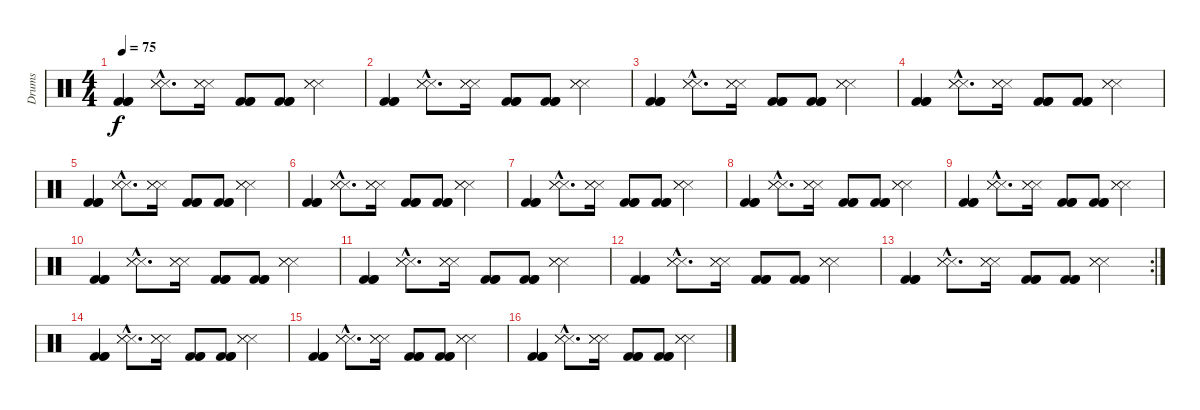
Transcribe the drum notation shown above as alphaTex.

\track ("Drums" "Drums") {instrument percussion}
\staff {score}
\articulation defaults
\ts (4 4)
\tempo 75
\clef neutral
\ks c
("Kick (hit) 2" "Kick (hit) 2" "Kick (hit) 2").4{dy f} ("Snare (side stick) 3"{hac} "Snare (side stick) 3"{hac} "Snare (side stick) 3"{hac}).8{d} ("Snare (side stick) 3" "Snare (side stick) 3" "Snare (side stick) 3").16 ("Kick (hit) 2" "Kick (hit) 2" "Kick (hit) 2").8 ("Kick (hit) 2" "Kick (hit) 2" "Kick (hit) 2").8 ("Snare (side stick) 3" "Snare (side stick) 3" "Snare (side stick) 3").4 |
("Kick (hit) 2" "Kick (hit) 2" "Kick (hit) 2").4 ("Snare (side stick) 3"{hac} "Snare (side stick) 3"{hac} "Snare (side stick) 3"{hac}).8{d} ("Snare (side stick) 3" "Snare (side stick) 3" "Snare (side stick) 3").16 ("Kick (hit) 2" "Kick (hit) 2" "Kick (hit) 2").8 ("Kick (hit) 2" "Kick (hit) 2" "Kick (hit) 2").8 ("Snare (side stick) 3" "Snare (side stick) 3" "Snare (side stick) 3").4 |
("Kick (hit) 2" "Kick (hit) 2" "Kick (hit) 2").4 ("Snare (side stick) 3"{hac} "Snare (side stick) 3"{hac} "Snare (side stick) 3"{hac}).8{d} ("Snare (side stick) 3" "Snare (side stick) 3" "Snare (side stick) 3").16 ("Kick (hit) 2" "Kick (hit) 2" "Kick (hit) 2").8 ("Kick (hit) 2" "Kick (hit) 2" "Kick (hit) 2").8 ("Snare (side stick) 3" "Snare (side stick) 3" "Snare (side stick) 3").4 |
("Kick (hit) 2" "Kick (hit) 2" "Kick (hit) 2").4 ("Snare (side stick) 3"{hac} "Snare (side stick) 3"{hac} "Snare (side stick) 3"{hac}).8{d} ("Snare (side stick) 3" "Snare (side stick) 3" "Snare (side stick) 3").16 ("Kick (hit) 2" "Kick (hit) 2" "Kick (hit) 2").8 ("Kick (hit) 2" "Kick (hit) 2" "Kick (hit) 2").8 ("Snare (side stick) 3" "Snare (side stick) 3" "Snare (side stick) 3").4 |
("Kick (hit) 2" "Kick (hit) 2" "Kick (hit) 2").4 ("Snare (side stick) 3"{hac} "Snare (side stick) 3"{hac} "Snare (side stick) 3"{hac}).8{d} ("Snare (side stick) 3" "Snare (side stick) 3" "Snare (side stick) 3").16 ("Kick (hit) 2" "Kick (hit) 2" "Kick (hit) 2").8 ("Kick (hit) 2" "Kick (hit) 2" "Kick (hit) 2").8 ("Snare (side stick) 3" "Snare (side stick) 3" "Snare (side stick) 3").4 |
("Kick (hit) 2" "Kick (hit) 2" "Kick (hit) 2").4 ("Snare (side stick) 3"{hac} "Snare (side stick) 3"{hac} "Snare (side stick) 3"{hac}).8{d} ("Snare (side stick) 3" "Snare (side stick) 3" "Snare (side stick) 3").16 ("Kick (hit) 2" "Kick (hit) 2" "Kick (hit) 2").8 ("Kick (hit) 2" "Kick (hit) 2" "Kick (hit) 2").8 ("Snare (side stick) 3" "Snare (side stick) 3" "Snare (side stick) 3").4 |
("Kick (hit) 2" "Kick (hit) 2" "Kick (hit) 2").4 ("Snare (side stick) 3"{hac} "Snare (side stick) 3"{hac} "Snare (side stick) 3"{hac}).8{d} ("Snare (side stick) 3" "Snare (side stick) 3" "Snare (side stick) 3").16 ("Kick (hit) 2" "Kick (hit) 2" "Kick (hit) 2").8 ("Kick (hit) 2" "Kick (hit) 2" "Kick (hit) 2").8 ("Snare (side stick) 3" "Snare (side stick) 3" "Snare (side stick) 3").4 |
("Kick (hit) 2" "Kick (hit) 2" "Kick (hit) 2").4 ("Snare (side stick) 3"{hac} "Snare (side stick) 3"{hac} "Snare (side stick) 3"{hac}).8{d} ("Snare (side stick) 3" "Snare (side stick) 3" "Snare (side stick) 3").16 ("Kick (hit) 2" "Kick (hit) 2" "Kick (hit) 2").8 ("Kick (hit) 2" "Kick (hit) 2" "Kick (hit) 2").8 ("Snare (side stick) 3" "Snare (side stick) 3" "Snare (side stick) 3").4 |
("Kick (hit) 2" "Kick (hit) 2" "Kick (hit) 2").4 ("Snare (side stick) 3"{hac} "Snare (side stick) 3"{hac} "Snare (side stick) 3"{hac}).8{d} ("Snare (side stick) 3" "Snare (side stick) 3" "Snare (side stick) 3").16 ("Kick (hit) 2" "Kick (hit) 2" "Kick (hit) 2").8 ("Kick (hit) 2" "Kick (hit) 2" "Kick (hit) 2").8 ("Snare (side stick) 3" "Snare (side stick) 3" "Snare (side stick) 3").4 |
("Kick (hit) 2" "Kick (hit) 2" "Kick (hit) 2").4 ("Snare (side stick) 3"{hac} "Snare (side stick) 3"{hac} "Snare (side stick) 3"{hac}).8{d} ("Snare (side stick) 3" "Snare (side stick) 3" "Snare (side stick) 3").16 ("Kick (hit) 2" "Kick (hit) 2" "Kick (hit) 2").8 ("Kick (hit) 2" "Kick (hit) 2" "Kick (hit) 2").8 ("Snare (side stick) 3" "Snare (side stick) 3" "Snare (side stick) 3").4 |
("Kick (hit) 2" "Kick (hit) 2" "Kick (hit) 2").4 ("Snare (side stick) 3"{hac} "Snare (side stick) 3"{hac} "Snare (side stick) 3"{hac}).8{d} ("Snare (side stick) 3" "Snare (side stick) 3" "Snare (side stick) 3").16 ("Kick (hit) 2" "Kick (hit) 2" "Kick (hit) 2").8 ("Kick (hit) 2" "Kick (hit) 2" "Kick (hit) 2").8 ("Snare (side stick) 3" "Snare (side stick) 3" "Snare (side stick) 3").4 |
("Kick (hit) 2" "Kick (hit) 2" "Kick (hit) 2").4 ("Snare (side stick) 3"{hac} "Snare (side stick) 3"{hac} "Snare (side stick) 3"{hac}).8{d} ("Snare (side stick) 3" "Snare (side stick) 3" "Snare (side stick) 3").16 ("Kick (hit) 2" "Kick (hit) 2" "Kick (hit) 2").8 ("Kick (hit) 2" "Kick (hit) 2" "Kick (hit) 2").8 ("Snare (side stick) 3" "Snare (side stick) 3" "Snare (side stick) 3").4 |
\rc 2
("Kick (hit) 2" "Kick (hit) 2" "Kick (hit) 2").4 ("Snare (side stick) 3"{hac} "Snare (side stick) 3"{hac} "Snare (side stick) 3"{hac}).8{d} ("Snare (side stick) 3" "Snare (side stick) 3" "Snare (side stick) 3").16 ("Kick (hit) 2" "Kick (hit) 2" "Kick (hit) 2").8 ("Kick (hit) 2" "Kick (hit) 2" "Kick (hit) 2").8 ("Snare (side stick) 3" "Snare (side stick) 3" "Snare (side stick) 3").4 |
("Kick (hit) 2" "Kick (hit) 2" "Kick (hit) 2").4 ("Snare (side stick) 3"{hac} "Snare (side stick) 3"{hac} "Snare (side stick) 3"{hac}).8{d} ("Snare (side stick) 3" "Snare (side stick) 3" "Snare (side stick) 3").16 ("Kick (hit) 2" "Kick (hit) 2" "Kick (hit) 2").8 ("Kick (hit) 2" "Kick (hit) 2" "Kick (hit) 2").8 ("Snare (side stick) 3" "Snare (side stick) 3" "Snare (side stick) 3").4 |
("Kick (hit) 2" "Kick (hit) 2" "Kick (hit) 2").4 ("Snare (side stick) 3"{hac} "Snare (side stick) 3"{hac} "Snare (side stick) 3"{hac}).8{d} ("Snare (side stick) 3" "Snare (side stick) 3" "Snare (side stick) 3").16 ("Kick (hit) 2" "Kick (hit) 2" "Kick (hit) 2").8 ("Kick (hit) 2" "Kick (hit) 2" "Kick (hit) 2").8 ("Snare (side stick) 3" "Snare (side stick) 3" "Snare (side stick) 3").4 |
("Kick (hit) 2" "Kick (hit) 2" "Kick (hit) 2").4 ("Snare (side stick) 3"{hac} "Snare (side stick) 3"{hac} "Snare (side stick) 3"{hac}).8{d} ("Snare (side stick) 3" "Snare (side stick) 3" "Snare (side stick) 3").16 ("Kick (hit) 2" "Kick (hit) 2" "Kick (hit) 2").8 ("Kick (hit) 2" "Kick (hit) 2" "Kick (hit) 2").8 ("Snare (side stick) 3" "Snare (side stick) 3" "Snare (side stick) 3").4
